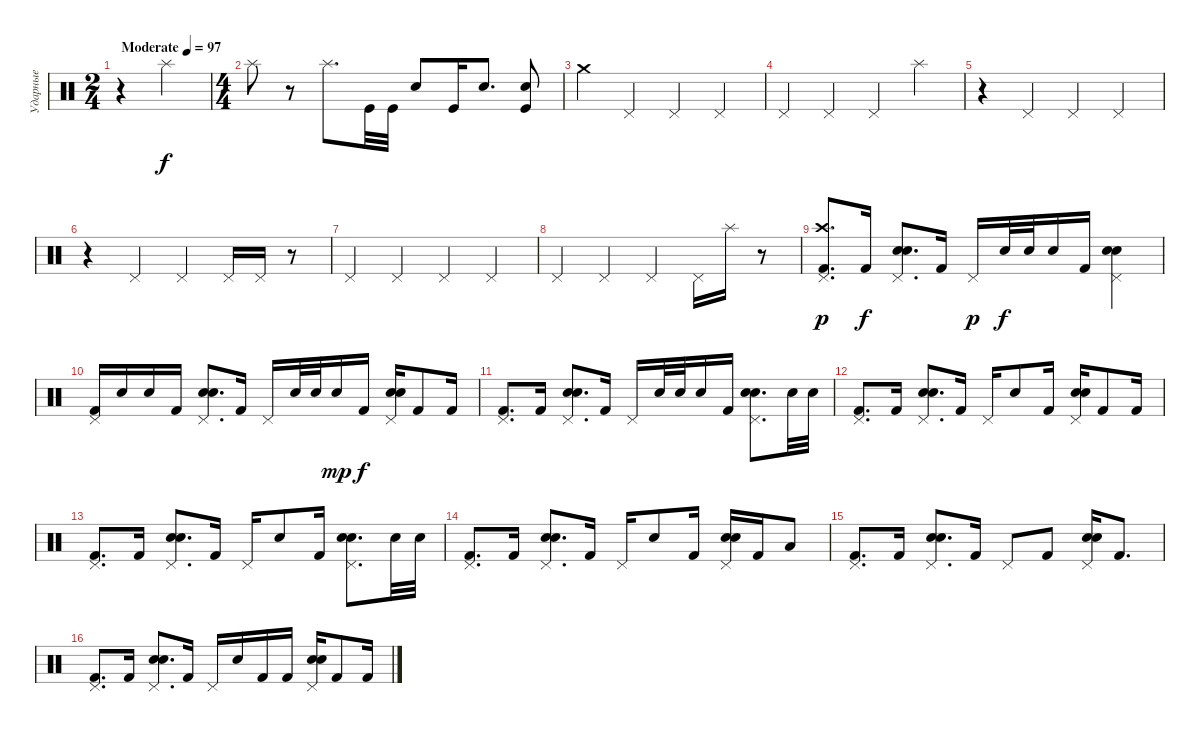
\track ("Ударные" "Ударные") {instrument percussion}
\staff {score}
\articulation defaults
\ts (2 4)
\tempo (97 "Moderate")
\clef neutral
\ks c
r.4{dy f} "Splash (hit)".4 |
\ts (4 4)
"Splash (hit)".8 r.8 "Splash (hit)".8{d} "Kick (hit)".32 "Kick (hit)".32 "Electric Snare (hit)".8 "Kick (hit)".16 "Electric Snare (hit)".8{d} ("Electric Snare (hit)" "Kick (hit)").8 |
"Crash medium (hit)".4 "Pedal Hi-Hat (hit)".4 "Pedal Hi-Hat (hit)".4 "Pedal Hi-Hat (hit)".4 |
"Pedal Hi-Hat (hit)".4 "Pedal Hi-Hat (hit)".4 "Pedal Hi-Hat (hit)".4 "Splash (hit)".4 |
r.4 "Pedal Hi-Hat (hit)".4 "Pedal Hi-Hat (hit)".4 "Pedal Hi-Hat (hit)".4 |
r.4 "Pedal Hi-Hat (hit)".4 "Pedal Hi-Hat (hit)".4 "Pedal Hi-Hat (hit)".16 "Pedal Hi-Hat (hit)".16 r.8 |
"Pedal Hi-Hat (hit)".4 "Pedal Hi-Hat (hit)".4 "Pedal Hi-Hat (hit)".4 "Pedal Hi-Hat (hit)".4 |
"Pedal Hi-Hat (hit)".4 "Pedal Hi-Hat (hit)".4 "Pedal Hi-Hat (hit)".4 "Pedal Hi-Hat (hit)".16 "Splash (hit)".16 r.8 |
("Crash high (hit)" "Pedal Hi-Hat (hit)" "Kick (hit) 2").8{d dy p} "Kick (hit) 2".16{dy f} ("Pedal Hi-Hat (hit)" "Electric Snare (hit)" "Snare (hit) 2").8{d} "Kick (hit) 2".16 "Pedal Hi-Hat (hit)".16{dy p} "Electric Snare (hit)".32{dy f} "Electric Snare (hit)".32 "Electric Snare (hit)".16 "Kick (hit) 2".16 ("Pedal Hi-Hat (hit)" "Electric Snare (hit)" "Snare (hit) 2").4 |
("Pedal Hi-Hat (hit)" "Kick (hit) 2").16 "Electric Snare (hit)".16 "Electric Snare (hit)".16 "Kick (hit) 2".16 ("Pedal Hi-Hat (hit)" "Electric Snare (hit)" "Snare (hit) 2").8{d} "Kick (hit) 2".16 "Pedal Hi-Hat (hit)".16 "Electric Snare (hit)".32 "Electric Snare (hit)".32 "Electric Snare (hit)".16{dy mp} "Kick (hit) 2".16{dy f} ("Pedal Hi-Hat (hit)" "Electric Snare (hit)" "Snare (hit) 2").16 "Kick (hit) 2".8 "Kick (hit) 2".16 |
("Pedal Hi-Hat (hit)" "Kick (hit) 2").8{d} "Kick (hit) 2".16 ("Pedal Hi-Hat (hit)" "Electric Snare (hit)" "Snare (hit) 2").8{d} "Kick (hit) 2".16 "Pedal Hi-Hat (hit)".16 "Electric Snare (hit)".32 "Electric Snare (hit)".32 "Electric Snare (hit)".16 "Kick (hit) 2".16 ("Pedal Hi-Hat (hit)" "Electric Snare (hit)" "Snare (hit) 2").8{d} "Electric Snare (hit)".32 "Electric Snare (hit)".32 |
("Pedal Hi-Hat (hit)" "Kick (hit) 2").8{d} "Kick (hit) 2".16 ("Pedal Hi-Hat (hit)" "Electric Snare (hit)" "Snare (hit) 2").8{d} "Kick (hit) 2".16 "Pedal Hi-Hat (hit)".16 "Electric Snare (hit)".8 "Kick (hit) 2".16 ("Pedal Hi-Hat (hit)" "Electric Snare (hit)" "Snare (hit) 2").16 "Kick (hit) 2".8 "Kick (hit) 2".16 |
("Pedal Hi-Hat (hit)" "Kick (hit) 2").8{d} "Kick (hit) 2".16 ("Pedal Hi-Hat (hit)" "Electric Snare (hit)" "Snare (hit) 2").8{d} "Kick (hit) 2".16 "Pedal Hi-Hat (hit)".16 "Electric Snare (hit)".8 "Kick (hit) 2".16 ("Pedal Hi-Hat (hit)" "Electric Snare (hit)" "Snare (hit) 2").8{d} "Electric Snare (hit)".32 "Electric Snare (hit)".32 |
("Pedal Hi-Hat (hit)" "Kick (hit) 2").8{d} "Kick (hit) 2".16 ("Pedal Hi-Hat (hit)" "Electric Snare (hit)" "Snare (hit) 2").8{d} "Kick (hit) 2".16 "Pedal Hi-Hat (hit)".16 "Electric Snare (hit)".8 "Kick (hit) 2".16 ("Pedal Hi-Hat (hit)" "Electric Snare (hit)" "Snare (hit) 2").16 "Kick (hit) 2".16 "Low Floor Tom (hit)".8 |
("Pedal Hi-Hat (hit)" "Kick (hit) 2").8{d} "Kick (hit) 2".16 ("Pedal Hi-Hat (hit)" "Electric Snare (hit)" "Snare (hit) 2").8{d} "Kick (hit) 2".16 "Pedal Hi-Hat (hit)".8 "Kick (hit) 2".8 ("Pedal Hi-Hat (hit)" "Electric Snare (hit)" "Snare (hit) 2").16 "Kick (hit) 2".8{d} |
("Pedal Hi-Hat (hit)" "Kick (hit) 2").8{d} "Kick (hit) 2".16 ("Pedal Hi-Hat (hit)" "Electric Snare (hit)" "Snare (hit) 2").8{d} "Kick (hit) 2".16 "Pedal Hi-Hat (hit)".16 "Electric Snare (hit)".16 "Kick (hit) 2".16 "Kick (hit) 2".16 ("Pedal Hi-Hat (hit)" "Electric Snare (hit)" "Snare (hit) 2").16 "Kick (hit) 2".8 "Kick (hit) 2".16
